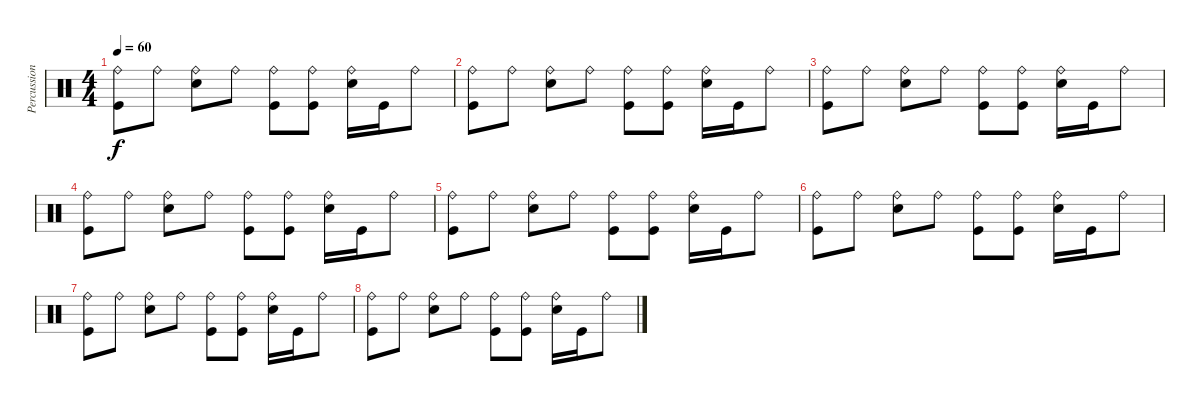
\track ("Percussion" "Percussion") {instrument percussion}
\staff {score}
\articulation defaults
\ts (4 4)
\tempo 60
\clef neutral
\ks c
("Ride (bell)" "Kick (hit)").8{dy f} "Ride (bell)".8 ("Ride (bell)" "Electric Snare (hit)").8 "Ride (bell)".8 ("Ride (bell)" "Kick (hit)").8 ("Ride (bell)" "Kick (hit)").8 ("Ride (bell)" "Electric Snare (hit)").16 "Kick (hit)".16 "Ride (bell)".8 |
("Ride (bell)" "Kick (hit)").8 "Ride (bell)".8 ("Ride (bell)" "Electric Snare (hit)").8 "Ride (bell)".8 ("Ride (bell)" "Kick (hit)").8 ("Ride (bell)" "Kick (hit)").8 ("Ride (bell)" "Electric Snare (hit)").16 "Kick (hit)".16 "Ride (bell)".8 |
("Ride (bell)" "Kick (hit)").8 "Ride (bell)".8 ("Ride (bell)" "Electric Snare (hit)").8 "Ride (bell)".8 ("Ride (bell)" "Kick (hit)").8 ("Ride (bell)" "Kick (hit)").8 ("Ride (bell)" "Electric Snare (hit)").16 "Kick (hit)".16 "Ride (bell)".8 |
("Ride (bell)" "Kick (hit)").8 "Ride (bell)".8 ("Ride (bell)" "Electric Snare (hit)").8 "Ride (bell)".8 ("Ride (bell)" "Kick (hit)").8 ("Ride (bell)" "Kick (hit)").8 ("Ride (bell)" "Electric Snare (hit)").16 "Kick (hit)".16 "Ride (bell)".8 |
("Ride (bell)" "Kick (hit)").8 "Ride (bell)".8 ("Ride (bell)" "Electric Snare (hit)").8 "Ride (bell)".8 ("Ride (bell)" "Kick (hit)").8 ("Ride (bell)" "Kick (hit)").8 ("Ride (bell)" "Electric Snare (hit)").16 "Kick (hit)".16 "Ride (bell)".8 |
("Ride (bell)" "Kick (hit)").8 "Ride (bell)".8 ("Ride (bell)" "Electric Snare (hit)").8 "Ride (bell)".8 ("Ride (bell)" "Kick (hit)").8 ("Ride (bell)" "Kick (hit)").8 ("Ride (bell)" "Electric Snare (hit)").16 "Kick (hit)".16 "Ride (bell)".8 |
("Ride (bell)" "Kick (hit)").8 "Ride (bell)".8 ("Ride (bell)" "Electric Snare (hit)").8 "Ride (bell)".8 ("Ride (bell)" "Kick (hit)").8 ("Ride (bell)" "Kick (hit)").8 ("Ride (bell)" "Electric Snare (hit)").16 "Kick (hit)".16 "Ride (bell)".8 |
("Ride (bell)" "Kick (hit)").8 "Ride (bell)".8 ("Ride (bell)" "Electric Snare (hit)").8 "Ride (bell)".8 ("Ride (bell)" "Kick (hit)").8 ("Ride (bell)" "Kick (hit)").8 ("Ride (bell)" "Electric Snare (hit)").16 "Kick (hit)".16 "Ride (bell)".8
